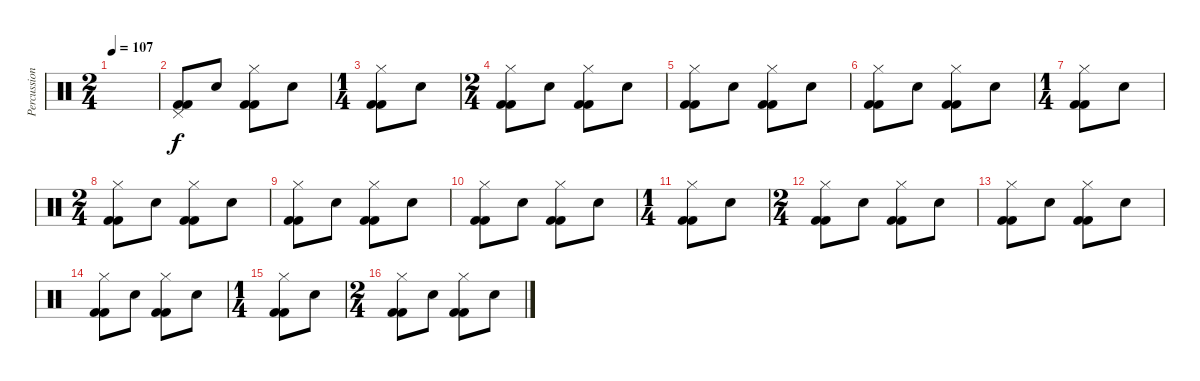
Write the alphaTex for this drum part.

\track ("Percussioni" "Percussion") {instrument percussion}
\staff {score}
\articulation defaults
\ts (2 4)
\tempo 107
\clef neutral
\ks c
|
("Pedal Hi-Hat (hit)" "Kick (hit) 2" "Kick (hit) 2").8 "Electric Snare (hit)".8 ("Hi-Hat (closed)" "Kick (hit) 2" "Kick (hit) 2").8 "Electric Snare (hit)".8 |
\ts (1 4)
("Hi-Hat (closed)" "Kick (hit) 2" "Kick (hit) 2").8 "Electric Snare (hit)".8 |
\ts (2 4)
("Hi-Hat (closed)" "Kick (hit) 2" "Kick (hit) 2").8 "Electric Snare (hit)".8 ("Hi-Hat (closed)" "Kick (hit) 2" "Kick (hit) 2").8 "Electric Snare (hit)".8 |
("Hi-Hat (closed)" "Kick (hit) 2" "Kick (hit) 2").8 "Electric Snare (hit)".8 ("Hi-Hat (closed)" "Kick (hit) 2" "Kick (hit) 2").8 "Electric Snare (hit)".8 |
("Hi-Hat (closed)" "Kick (hit) 2" "Kick (hit) 2").8 "Electric Snare (hit)".8 ("Hi-Hat (closed)" "Kick (hit) 2" "Kick (hit) 2").8 "Electric Snare (hit)".8 |
\ts (1 4)
("Hi-Hat (closed)" "Kick (hit) 2" "Kick (hit) 2").8 "Electric Snare (hit)".8 |
\ts (2 4)
("Hi-Hat (closed)" "Kick (hit) 2" "Kick (hit) 2").8 "Electric Snare (hit)".8 ("Hi-Hat (closed)" "Kick (hit) 2" "Kick (hit) 2").8 "Electric Snare (hit)".8 |
("Hi-Hat (closed)" "Kick (hit) 2" "Kick (hit) 2").8 "Electric Snare (hit)".8 ("Hi-Hat (closed)" "Kick (hit) 2" "Kick (hit) 2").8 "Electric Snare (hit)".8 |
("Hi-Hat (closed)" "Kick (hit) 2" "Kick (hit) 2").8 "Electric Snare (hit)".8 ("Hi-Hat (closed)" "Kick (hit) 2" "Kick (hit) 2").8 "Electric Snare (hit)".8 |
\ts (1 4)
("Hi-Hat (closed)" "Kick (hit) 2" "Kick (hit) 2").8 "Electric Snare (hit)".8 |
\ts (2 4)
("Hi-Hat (closed)" "Kick (hit) 2" "Kick (hit) 2").8 "Electric Snare (hit)".8 ("Hi-Hat (closed)" "Kick (hit) 2" "Kick (hit) 2").8 "Electric Snare (hit)".8 |
("Hi-Hat (closed)" "Kick (hit) 2" "Kick (hit) 2").8 "Electric Snare (hit)".8 ("Hi-Hat (closed)" "Kick (hit) 2" "Kick (hit) 2").8 "Electric Snare (hit)".8 |
("Hi-Hat (closed)" "Kick (hit) 2" "Kick (hit) 2").8 "Electric Snare (hit)".8 ("Hi-Hat (closed)" "Kick (hit) 2" "Kick (hit) 2").8 "Electric Snare (hit)".8 |
\ts (1 4)
("Hi-Hat (closed)" "Kick (hit) 2" "Kick (hit) 2").8 "Electric Snare (hit)".8 |
\ts (2 4)
("Hi-Hat (closed)" "Kick (hit) 2" "Kick (hit) 2").8 "Electric Snare (hit)".8 ("Hi-Hat (closed)" "Kick (hit) 2" "Kick (hit) 2").8 "Electric Snare (hit)".8
